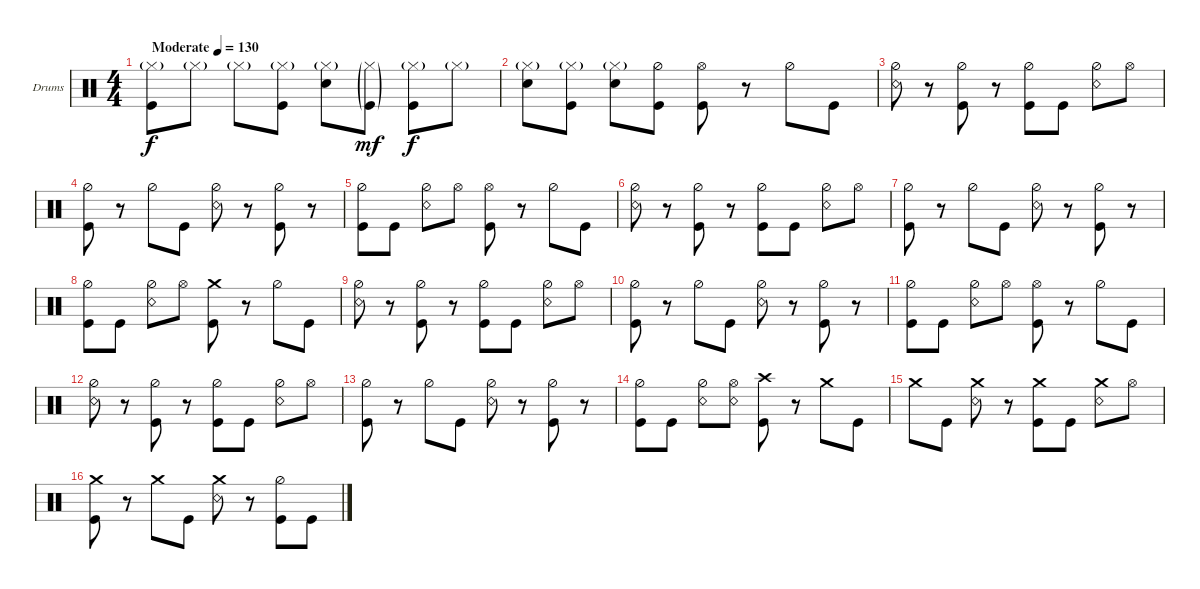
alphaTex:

\bracketExtendMode groupsimilarinstruments
\firstSystemTrackNameOrientation horizontal
\otherSystemsTrackNameOrientation horizontal
\track ("Drumkit" "Drums") {instrument percussion}
\staff {score}
\articulation defaults
\ts (4 4)
\beaming (8 2 2 2 2)
\tempo (130 "Moderate")
\clef neutral
\scale
0.472222
\ks c
("Kick (hit)" "Hi-Hat (closed)"{g}).8{dy f} "Hi-Hat (closed)"{g}.8 "Hi-Hat (closed)"{g}.8 ("Kick (hit)" "Hi-Hat (closed)"{g}).8 ("Snare (hit) 2" "Hi-Hat (closed)"{g}).8 ("Hi-Hat (closed)"{g} "Kick (hit)"{g}).8{dy mf} ("Kick (hit)" "Hi-Hat (closed)"{g}).8{dy f} "Hi-Hat (closed)"{g}.8 |
\scale
0.263889 ("Snare (hit) 2" "Hi-Hat (closed)"{g}).8 ("Kick (hit)" "Hi-Hat (closed)"{g}).8 ("Snare (hit) 2" "Hi-Hat (closed)"{g}).8 ("Kick (hit)" "Hi-Hat (half)").8 ("Kick (hit)" "Hi-Hat (open)").8 r.8 "Hi-Hat (half)".8 "Kick (hit)".8 |
\scale
0.263889 ("Hi-Hat (half)" "Snare (rim shot)").8 r.8 ("Hi-Hat (half)" "Kick (hit)").8 r.8 ("Hi-Hat (half)" "Kick (hit)").8 "Kick (hit)".8 ("Hi-Hat (half)" "Snare (rim shot)").8 "Hi-Hat (open)".8 |
\scale
0.333333 ("Kick (hit)" "Hi-Hat (half)").8 r.8 "Hi-Hat (half)".8 "Kick (hit)".8 ("Hi-Hat (half)" "Snare (rim shot)").8 r.8 ("Hi-Hat (half)" "Kick (hit)").8 r.8 |
\scale
0.333333 ("Hi-Hat (half)" "Kick (hit)").8 "Kick (hit)".8 ("Hi-Hat (half)" "Snare (rim shot)").8 "Hi-Hat (open)".8 ("Kick (hit)" "Hi-Hat (open)").8 r.8 "Hi-Hat (half)".8 "Kick (hit)".8 |
\scale
0.333333 ("Hi-Hat (half)" "Snare (rim shot)").8 r.8 ("Hi-Hat (half)" "Kick (hit)").8 r.8 ("Hi-Hat (half)" "Kick (hit)").8 "Kick (hit)".8 ("Hi-Hat (half)" "Snare (rim shot)").8 "Hi-Hat (open)".8 |
\scale
0.333333 ("Kick (hit)" "Hi-Hat (half)").8 r.8 "Hi-Hat (half)".8 "Kick (hit)".8 ("Hi-Hat (half)" "Snare (rim shot)").8 r.8 ("Hi-Hat (half)" "Kick (hit)").8 r.8 |
\scale
0.333333 ("Hi-Hat (half)" "Kick (hit)").8 "Kick (hit)".8 ("Hi-Hat (half)" "Snare (rim shot)").8 "Hi-Hat (open)".8 ("Kick (hit)" "Crash medium (hit)").8 r.8 "Hi-Hat (half)".8 "Kick (hit)".8 |
\scale
0.333333 ("Hi-Hat (half)" "Snare (rim shot)").8 r.8 ("Hi-Hat (half)" "Kick (hit)").8 r.8 ("Hi-Hat (half)" "Kick (hit)").8 "Kick (hit)".8 ("Hi-Hat (half)" "Snare (rim shot)").8 "Hi-Hat (open)".8 |
\scale
0.333333 ("Kick (hit)" "Hi-Hat (half)").8 r.8 "Hi-Hat (half)".8 "Kick (hit)".8 ("Hi-Hat (half)" "Snare (rim shot)").8 r.8 ("Hi-Hat (half)" "Kick (hit)").8 r.8 |
\scale
0.333333 ("Hi-Hat (half)" "Kick (hit)").8 "Kick (hit)".8 ("Hi-Hat (half)" "Snare (rim shot)").8 "Hi-Hat (open)".8 ("Hi-Hat (open)" "Kick (hit)").8 r.8 "Hi-Hat (half)".8 "Kick (hit)".8 |
\scale
0.333333 ("Hi-Hat (half)" "Snare (rim shot)").8 r.8 ("Hi-Hat (half)" "Kick (hit)").8 r.8 ("Hi-Hat (half)" "Kick (hit)").8 "Kick (hit)".8 ("Hi-Hat (half)" "Snare (rim shot)").8 "Hi-Hat (open)".8 |
\scale
0.333333 ("Kick (hit)" "Hi-Hat (half)").8 r.8 "Hi-Hat (half)".8 "Kick (hit)".8 ("Hi-Hat (half)" "Snare (rim shot)").8 r.8 ("Hi-Hat (half)" "Kick (hit)").8 r.8 |
\scale
0.333333 ("Hi-Hat (half)" "Kick (hit)").8 "Kick (hit)".8 ("Hi-Hat (half)" "Snare (rim shot)").8 ("Hi-Hat (open)" "Snare (rim shot)").8 ("Kick (hit)" "Crash high (hit)").8 r.8 "Crash medium (hit)".8 "Kick (hit)".8 |
\scale
0.333333 "Crash medium (hit)".8 "Kick (hit)".8 ("Crash medium (hit)" "Snare (rim shot)").8 r.8 ("Kick (hit)" "Crash medium (hit)").8 "Kick (hit)".8 ("Snare (rim shot)" "Crash medium (hit)").8 "Hi-Hat (open)".8 |
\scale
0.333333 ("Kick (hit)" "Crash medium (hit)").8 r.8 "Crash medium (hit)".8 "Kick (hit)".8 ("Snare (rim shot)" "Crash medium (hit)").8 r.8 ("Hi-Hat (half)" "Kick (hit)").8 "Kick (hit)".8
